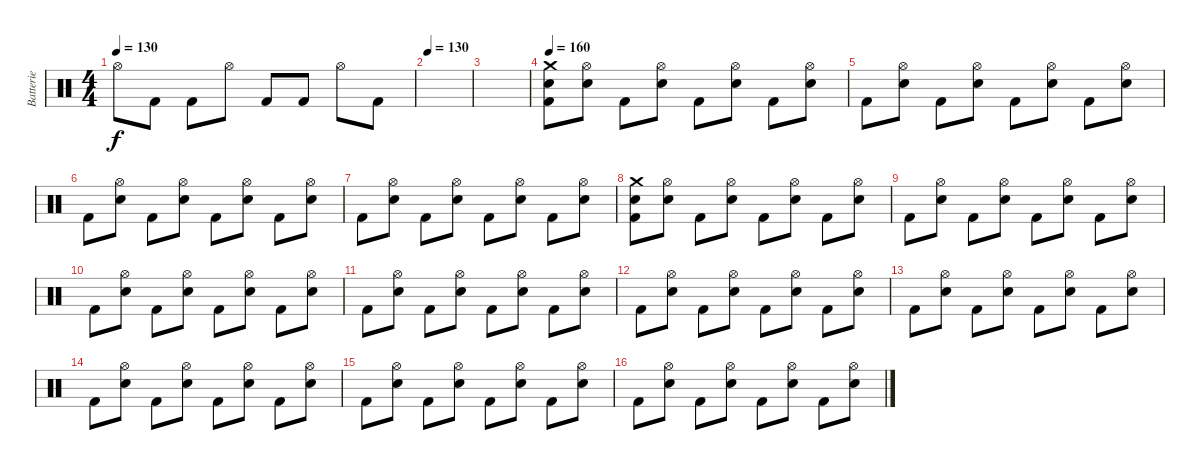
\track ("Batterie" "Batterie") {instrument percussion}
\staff {score}
\articulation defaults
\ts (4 4)
\tempo 130
\clef neutral
\ks c "Hi-Hat (open)".8{dy f volume 6} "Kick (hit) 2".8 "Kick (hit) 2".8 "Hi-Hat (open)".8 "Kick (hit) 2".8 "Kick (hit) 2".8 "Hi-Hat (open)".8 "Kick (hit) 2".8
|
\tempo 130
|
|
\tempo 160
("Kick (hit) 2" "Electric Snare (hit)" "Crash medium (hit)").8{volume 10} ("Electric Snare (hit)" "Hi-Hat (open)").8 "Kick (hit) 2".8 ("Electric Snare (hit)" "Hi-Hat (open)").8 "Kick (hit) 2".8 ("Electric Snare (hit)" "Hi-Hat (open)").8 "Kick (hit) 2".8 ("Electric Snare (hit)" "Hi-Hat (open)").8 |
"Kick (hit) 2".8 ("Electric Snare (hit)" "Hi-Hat (open)").8 "Kick (hit) 2".8 ("Electric Snare (hit)" "Hi-Hat (open)").8 "Kick (hit) 2".8 ("Electric Snare (hit)" "Hi-Hat (open)").8 "Kick (hit) 2".8 ("Electric Snare (hit)" "Hi-Hat (open)").8 |
"Kick (hit) 2".8 ("Electric Snare (hit)" "Hi-Hat (open)").8 "Kick (hit) 2".8 ("Electric Snare (hit)" "Hi-Hat (open)").8 "Kick (hit) 2".8 ("Electric Snare (hit)" "Hi-Hat (open)").8 "Kick (hit) 2".8 ("Electric Snare (hit)" "Hi-Hat (open)").8 |
"Kick (hit) 2".8 ("Electric Snare (hit)" "Hi-Hat (open)").8 "Kick (hit) 2".8 ("Electric Snare (hit)" "Hi-Hat (open)").8 "Kick (hit) 2".8 ("Electric Snare (hit)" "Hi-Hat (open)").8 "Kick (hit) 2".8 ("Electric Snare (hit)" "Hi-Hat (open)").8 |
("Kick (hit) 2" "Electric Snare (hit)" "Crash medium (hit)").8 ("Electric Snare (hit)" "Hi-Hat (open)").8 "Kick (hit) 2".8 ("Electric Snare (hit)" "Hi-Hat (open)").8 "Kick (hit) 2".8 ("Electric Snare (hit)" "Hi-Hat (open)").8 "Kick (hit) 2".8 ("Electric Snare (hit)" "Hi-Hat (open)").8 |
"Kick (hit) 2".8 ("Electric Snare (hit)" "Hi-Hat (open)").8 "Kick (hit) 2".8 ("Electric Snare (hit)" "Hi-Hat (open)").8 "Kick (hit) 2".8 ("Electric Snare (hit)" "Hi-Hat (open)").8 "Kick (hit) 2".8 ("Electric Snare (hit)" "Hi-Hat (open)").8 |
"Kick (hit) 2".8 ("Electric Snare (hit)" "Hi-Hat (open)").8 "Kick (hit) 2".8 ("Electric Snare (hit)" "Hi-Hat (open)").8 "Kick (hit) 2".8 ("Electric Snare (hit)" "Hi-Hat (open)").8 "Kick (hit) 2".8 ("Electric Snare (hit)" "Hi-Hat (open)").8 |
"Kick (hit) 2".8 ("Electric Snare (hit)" "Hi-Hat (open)").8 "Kick (hit) 2".8 ("Electric Snare (hit)" "Hi-Hat (open)").8 "Kick (hit) 2".8 ("Electric Snare (hit)" "Hi-Hat (open)").8 "Kick (hit) 2".8 ("Electric Snare (hit)" "Hi-Hat (open)").8 |
"Kick (hit) 2".8 ("Electric Snare (hit)" "Hi-Hat (open)").8 "Kick (hit) 2".8 ("Electric Snare (hit)" "Hi-Hat (open)").8 "Kick (hit) 2".8 ("Electric Snare (hit)" "Hi-Hat (open)").8 "Kick (hit) 2".8 ("Electric Snare (hit)" "Hi-Hat (open)").8 |
"Kick (hit) 2".8 ("Electric Snare (hit)" "Hi-Hat (open)").8 "Kick (hit) 2".8 ("Electric Snare (hit)" "Hi-Hat (open)").8 "Kick (hit) 2".8 ("Electric Snare (hit)" "Hi-Hat (open)").8 "Kick (hit) 2".8 ("Electric Snare (hit)" "Hi-Hat (open)").8 |
"Kick (hit) 2".8 ("Electric Snare (hit)" "Hi-Hat (open)").8 "Kick (hit) 2".8 ("Electric Snare (hit)" "Hi-Hat (open)").8 "Kick (hit) 2".8 ("Electric Snare (hit)" "Hi-Hat (open)").8 "Kick (hit) 2".8 ("Electric Snare (hit)" "Hi-Hat (open)").8 |
"Kick (hit) 2".8 ("Electric Snare (hit)" "Hi-Hat (open)").8 "Kick (hit) 2".8 ("Electric Snare (hit)" "Hi-Hat (open)").8 "Kick (hit) 2".8 ("Electric Snare (hit)" "Hi-Hat (open)").8 "Kick (hit) 2".8 ("Electric Snare (hit)" "Hi-Hat (open)").8 |
"Kick (hit) 2".8 ("Electric Snare (hit)" "Hi-Hat (open)").8 "Kick (hit) 2".8 ("Electric Snare (hit)" "Hi-Hat (open)").8 "Kick (hit) 2".8 ("Electric Snare (hit)" "Hi-Hat (open)").8 "Kick (hit) 2".8 ("Electric Snare (hit)" "Hi-Hat (open)").8
